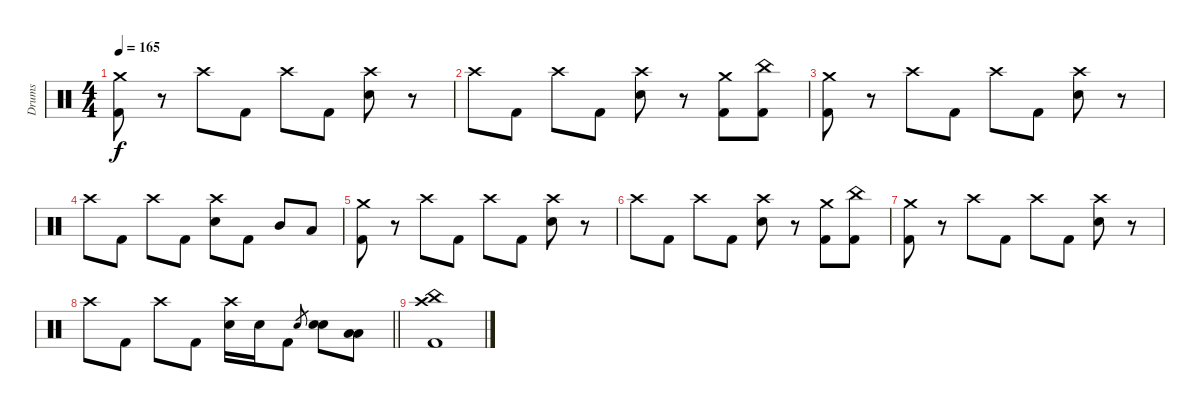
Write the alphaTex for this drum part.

\track ("Drums" "Drums") {instrument percussion}
\staff {score}
\articulation defaults
\ts (4 4)
\tempo 165
\clef neutral
\ks c
("Crash medium (hit)" "Kick (hit) 2").8{dy f} r.8 "Crash high (hit)".8 "Kick (hit) 2".8 "Crash high (hit)".8 "Kick (hit) 2".8 ("Crash high (hit)" "Electric Snare (hit)").8 r.8 |
"Crash high (hit)".8 "Kick (hit) 2".8 "Crash high (hit)".8 "Kick (hit) 2".8 ("Crash high (hit)" "Electric Snare (hit)").8 r.8 ("Crash medium (hit)" "Kick (hit) 2").8 ("China (hit)" "Kick (hit) 2").8 |
("Crash medium (hit)" "Kick (hit) 2").8 r.8 "Crash high (hit)".8 "Kick (hit) 2".8 "Crash high (hit)".8 "Kick (hit) 2".8 ("Crash high (hit)" "Electric Snare (hit)").8 r.8 |
"Crash high (hit)".8 "Kick (hit) 2".8 "Crash high (hit)".8 "Kick (hit) 2".8 ("Crash high (hit)" "Electric Snare (hit)").8 "Kick (hit) 2".8 "Mid Tom (hit)".8 "Low Tom (hit)".8 |
("Crash medium (hit)" "Kick (hit) 2").8 r.8 "Crash high (hit)".8 "Kick (hit) 2".8 "Crash high (hit)".8 "Kick (hit) 2".8 ("Crash high (hit)" "Electric Snare (hit)").8 r.8 |
"Crash high (hit)".8 "Kick (hit) 2".8 "Crash high (hit)".8 "Kick (hit) 2".8 ("Crash high (hit)" "Electric Snare (hit)").8 r.8 ("Crash medium (hit)" "Kick (hit) 2").8 ("China (hit)" "Kick (hit) 2").8 |
("Crash medium (hit)" "Kick (hit) 2").8 r.8 "Crash high (hit)".8 "Kick (hit) 2".8 "Crash high (hit)".8 "Kick (hit) 2".8 ("Crash high (hit)" "Electric Snare (hit)").8 r.8 |
\barLineRight lightlight "Crash high (hit)".8 "Kick (hit) 2".8 "Crash high (hit)".8 "Kick (hit) 2".8
("Crash high (hit)" "Electric Snare (hit)").16 "Electric Snare (hit)".16 "Kick (hit) 2".8 "Electric Snare (hit)".8{gr} ("Electric Snare (hit)" "Electric Snare (hit)").8 ("Low Tom (hit)" "Low Floor Tom (hit)").8 |
("China (hit)" "Crash high (hit)" "Kick (hit) 2").1
